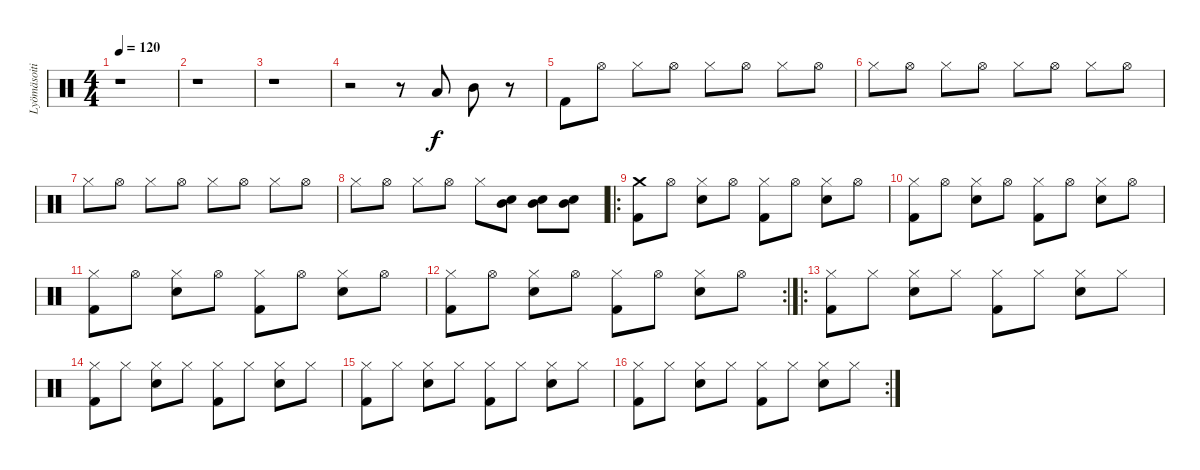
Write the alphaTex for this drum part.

\track ("Lyömäsoitin" "Lyömäsoiti") {instrument percussion}
\staff {score}
\articulation defaults
\ts (4 4)
\tempo 120
\clef neutral
\ks c
r.1{dy f} |
r.1 |
r.1 |
r.2 r.8 "Low Tom (hit)".8 "Mid Tom (hit)".8 r.8 |
"Kick (hit) 2".8 "Hi-Hat (open)".8 "Hi-Hat (closed)".8 "Hi-Hat (open)".8 "Hi-Hat (closed)".8 "Hi-Hat (open)".8 "Hi-Hat (closed)".8 "Hi-Hat (open)".8 |
"Hi-Hat (closed)".8 "Hi-Hat (open)".8 "Hi-Hat (closed)".8 "Hi-Hat (open)".8 "Hi-Hat (closed)".8 "Hi-Hat (open)".8 "Hi-Hat (closed)".8 "Hi-Hat (open)".8 |
"Hi-Hat (closed)".8 "Hi-Hat (open)".8 "Hi-Hat (closed)".8 "Hi-Hat (open)".8 "Hi-Hat (closed)".8 "Hi-Hat (open)".8 "Hi-Hat (closed)".8 "Hi-Hat (open)".8 |
"Hi-Hat (closed)".8 "Hi-Hat (open)".8 "Hi-Hat (closed)".8 "Hi-Hat (open)".8 "Hi-Hat (closed)".8 ("Mid Tom (hit)" "Electric Snare (hit)").8 ("Mid Tom (hit)" "Electric Snare (hit)").8 ("Mid Tom (hit)" "Electric Snare (hit)").8 |
\ro
("Kick (hit) 2" "Crash medium (hit)").8 "Hi-Hat (open)".8 ("Electric Snare (hit)" "Hi-Hat (closed)").8 "Hi-Hat (open)".8 ("Kick (hit) 2" "Hi-Hat (closed)").8 "Hi-Hat (open)".8 ("Electric Snare (hit)" "Hi-Hat (closed)").8 "Hi-Hat (open)".8 |
("Kick (hit) 2" "Hi-Hat (closed)").8 "Hi-Hat (open)".8 ("Electric Snare (hit)" "Hi-Hat (closed)").8 "Hi-Hat (open)".8 ("Kick (hit) 2" "Hi-Hat (closed)").8 "Hi-Hat (open)".8 ("Electric Snare (hit)" "Hi-Hat (closed)").8 "Hi-Hat (open)".8 |
("Kick (hit) 2" "Hi-Hat (closed)").8 "Hi-Hat (open)".8 ("Electric Snare (hit)" "Hi-Hat (closed)").8 "Hi-Hat (open)".8 ("Kick (hit) 2" "Hi-Hat (closed)").8 "Hi-Hat (open)".8 ("Electric Snare (hit)" "Hi-Hat (closed)").8 "Hi-Hat (open)".8 |
\rc 2
("Kick (hit) 2" "Hi-Hat (closed)").8 "Hi-Hat (open)".8 ("Electric Snare (hit)" "Hi-Hat (closed)").8 "Hi-Hat (open)".8 ("Kick (hit) 2" "Hi-Hat (closed)").8 "Hi-Hat (open)".8 ("Electric Snare (hit)" "Hi-Hat (closed)").8 "Hi-Hat (open)".8 |
\ro
("Kick (hit) 2" "Hi-Hat (closed)").8 "Hi-Hat (closed)".8 ("Electric Snare (hit)" "Hi-Hat (closed)").8 "Hi-Hat (closed)".8 ("Kick (hit) 2" "Hi-Hat (closed)").8 "Hi-Hat (closed)".8 ("Electric Snare (hit)" "Hi-Hat (closed)").8 "Hi-Hat (closed)".8 |
("Kick (hit) 2" "Hi-Hat (closed)").8 "Hi-Hat (closed)".8 ("Electric Snare (hit)" "Hi-Hat (closed)").8 "Hi-Hat (closed)".8 ("Kick (hit) 2" "Hi-Hat (closed)").8 "Hi-Hat (closed)".8 ("Electric Snare (hit)" "Hi-Hat (closed)").8 "Hi-Hat (closed)".8 |
("Kick (hit) 2" "Hi-Hat (closed)").8 "Hi-Hat (closed)".8 ("Electric Snare (hit)" "Hi-Hat (closed)").8 "Hi-Hat (closed)".8 ("Kick (hit) 2" "Hi-Hat (closed)").8 "Hi-Hat (closed)".8 ("Electric Snare (hit)" "Hi-Hat (closed)").8 "Hi-Hat (closed)".8 |
\rc 2
("Kick (hit) 2" "Hi-Hat (closed)").8 "Hi-Hat (closed)".8 ("Electric Snare (hit)" "Hi-Hat (closed)").8 "Hi-Hat (closed)".8 ("Kick (hit) 2" "Hi-Hat (closed)").8 "Hi-Hat (closed)".8 ("Electric Snare (hit)" "Hi-Hat (closed)").8 "Hi-Hat (closed)".8
